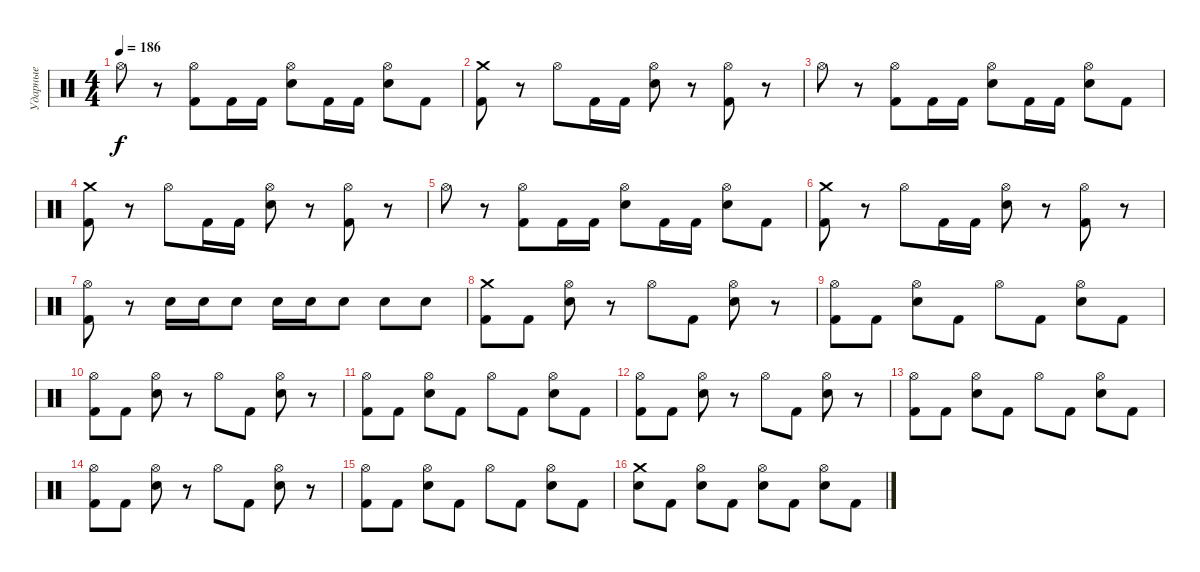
\track ("Ударные" "Ударные") {instrument percussion}
\staff {score}
\articulation defaults
\ts (4 4)
\tempo 186
\clef neutral
\ks c "Hi-Hat (open)".8{dy f}
r.8 ("Kick (hit) 2" "Hi-Hat (open)").8 "Kick (hit) 2".16 "Kick (hit) 2".16 ("Snare (hit) 2" "Hi-Hat (open)").8 "Kick (hit) 2".16 "Kick (hit) 2".16 ("Snare (hit) 2" "Hi-Hat (open)").8 "Kick (hit) 2".8 |
("Kick (hit) 2" "Crash medium (hit)").8 r.8 "Hi-Hat (open)".8 "Kick (hit) 2".16 "Kick (hit) 2".16 ("Snare (hit) 2" "Hi-Hat (open)").8 r.8 ("Kick (hit) 2" "Hi-Hat (open)").8 r.8 |
"Hi-Hat (open)".8 r.8 ("Kick (hit) 2" "Hi-Hat (open)").8 "Kick (hit) 2".16 "Kick (hit) 2".16 ("Snare (hit) 2" "Hi-Hat (open)").8 "Kick (hit) 2".16 "Kick (hit) 2".16 ("Snare (hit) 2" "Hi-Hat (open)").8 "Kick (hit) 2".8 |
("Kick (hit) 2" "Crash medium (hit)").8 r.8 "Hi-Hat (open)".8 "Kick (hit) 2".16 "Kick (hit) 2".16 ("Snare (hit) 2" "Hi-Hat (open)").8 r.8 ("Kick (hit) 2" "Hi-Hat (open)").8 r.8 |
"Hi-Hat (open)".8 r.8 ("Kick (hit) 2" "Hi-Hat (open)").8 "Kick (hit) 2".16 "Kick (hit) 2".16 ("Snare (hit) 2" "Hi-Hat (open)").8 "Kick (hit) 2".16 "Kick (hit) 2".16 ("Snare (hit) 2" "Hi-Hat (open)").8 "Kick (hit) 2".8 |
("Kick (hit) 2" "Crash medium (hit)").8 r.8 "Hi-Hat (open)".8 "Kick (hit) 2".16 "Kick (hit) 2".16 ("Snare (hit) 2" "Hi-Hat (open)").8 r.8 ("Kick (hit) 2" "Hi-Hat (open)").8 r.8 |
("Kick (hit) 2" "Hi-Hat (open)").8 r.8 "Snare (hit) 2".16 "Snare (hit) 2".16 "Snare (hit) 2".8 "Snare (hit) 2".16 "Snare (hit) 2".16 "Snare (hit) 2".8 "Snare (hit) 2".8 "Snare (hit) 2".8 |
("Kick (hit) 2" "Crash medium (hit)").8 "Kick (hit) 2".8 ("Snare (hit) 2" "Hi-Hat (open)").8 r.8 "Hi-Hat (open)".8 "Kick (hit) 2".8 ("Snare (hit) 2" "Hi-Hat (open)").8 r.8 |
("Kick (hit) 2" "Hi-Hat (open)").8 "Kick (hit) 2".8 ("Snare (hit) 2" "Hi-Hat (open)").8 "Kick (hit) 2".8 "Hi-Hat (open)".8 "Kick (hit) 2".8 ("Snare (hit) 2" "Hi-Hat (open)").8 "Kick (hit) 2".8 |
("Kick (hit) 2" "Hi-Hat (open)").8 "Kick (hit) 2".8 ("Snare (hit) 2" "Hi-Hat (open)").8 r.8 "Hi-Hat (open)".8 "Kick (hit) 2".8 ("Snare (hit) 2" "Hi-Hat (open)").8 r.8 |
("Kick (hit) 2" "Hi-Hat (open)").8 "Kick (hit) 2".8 ("Snare (hit) 2" "Hi-Hat (open)").8 "Kick (hit) 2".8 "Hi-Hat (open)".8 "Kick (hit) 2".8 ("Snare (hit) 2" "Hi-Hat (open)").8 "Kick (hit) 2".8 |
("Kick (hit) 2" "Hi-Hat (open)").8 "Kick (hit) 2".8 ("Snare (hit) 2" "Hi-Hat (open)").8 r.8 "Hi-Hat (open)".8 "Kick (hit) 2".8 ("Snare (hit) 2" "Hi-Hat (open)").8 r.8 |
("Kick (hit) 2" "Hi-Hat (open)").8 "Kick (hit) 2".8 ("Snare (hit) 2" "Hi-Hat (open)").8 "Kick (hit) 2".8 "Hi-Hat (open)".8 "Kick (hit) 2".8 ("Snare (hit) 2" "Hi-Hat (open)").8 "Kick (hit) 2".8 |
("Kick (hit) 2" "Hi-Hat (open)").8 "Kick (hit) 2".8 ("Snare (hit) 2" "Hi-Hat (open)").8 r.8 "Hi-Hat (open)".8 "Kick (hit) 2".8 ("Snare (hit) 2" "Hi-Hat (open)").8 r.8 |
("Kick (hit) 2" "Hi-Hat (open)").8 "Kick (hit) 2".8 ("Snare (hit) 2" "Hi-Hat (open)").8 "Kick (hit) 2".8 "Hi-Hat (open)".8 "Kick (hit) 2".8 ("Snare (hit) 2" "Hi-Hat (open)").8 "Kick (hit) 2".8 |
("Snare (hit) 2" "Crash medium (hit)").8 "Kick (hit) 2".8 ("Snare (hit) 2" "Hi-Hat (open)").8 "Kick (hit) 2".8 ("Snare (hit) 2" "Hi-Hat (open)").8 "Kick (hit) 2".8 ("Snare (hit) 2" "Hi-Hat (open)").8 "Kick (hit) 2".8
